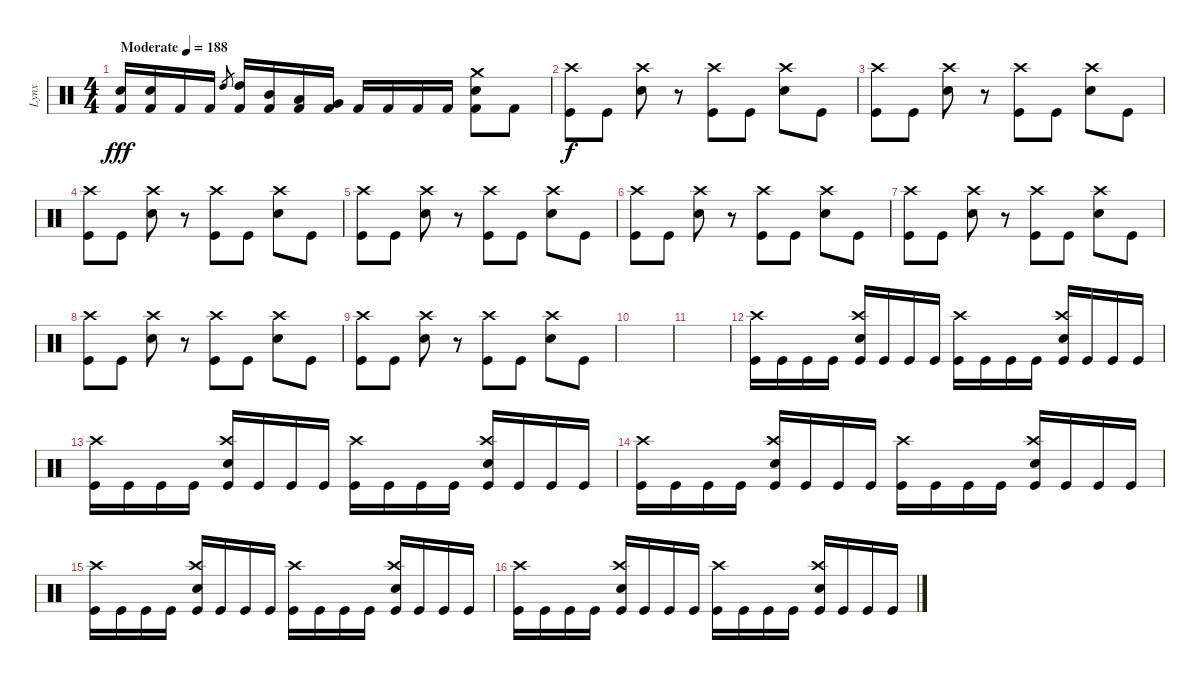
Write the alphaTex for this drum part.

\track ("Lynx" "Lynx") {instrument percussion}
\staff {score}
\articulation defaults
\ts (4 4)
\tempo (188 "Moderate")
\clef neutral
\ks c
("Electric Snare (hit)" "Kick (hit) 2").16{dy fff} ("Electric Snare (hit)" "Kick (hit) 2").16 "Kick (hit) 2".16 "Kick (hit) 2".16 "High Tom (hit)".8{gr} ("High Tom (hit)" "Kick (hit) 2").16 ("Mid Tom (hit)" "Kick (hit) 2").16 ("Low Tom (hit)" "Kick (hit) 2").16 ("Very Low Tom (hit)" "Kick (hit) 2").16 "Kick (hit) 2".16 "Kick (hit) 2".16 "Kick (hit) 2".16 "Kick (hit) 2".16 ("Crash medium (hit)" "Electric Snare (hit)" "Kick (hit) 2").8 "Kick (hit) 2".8 |
("Crash high (hit)" "Kick (hit)").8{dy f} "Kick (hit)".8 ("Crash high (hit)" "Electric Snare (hit)").8 r.8 ("Crash high (hit)" "Kick (hit)").8 "Kick (hit)".8 ("Crash high (hit)" "Electric Snare (hit)").8 "Kick (hit)".8 |
("Crash high (hit)" "Kick (hit)").8 "Kick (hit)".8 ("Crash high (hit)" "Electric Snare (hit)").8 r.8 ("Crash high (hit)" "Kick (hit)").8 "Kick (hit)".8 ("Crash high (hit)" "Electric Snare (hit)").8 "Kick (hit)".8 |
("Crash high (hit)" "Kick (hit)").8 "Kick (hit)".8 ("Crash high (hit)" "Electric Snare (hit)").8 r.8 ("Crash high (hit)" "Kick (hit)").8 "Kick (hit)".8 ("Crash high (hit)" "Electric Snare (hit)").8 "Kick (hit)".8 |
("Crash high (hit)" "Kick (hit)").8 "Kick (hit)".8 ("Crash high (hit)" "Electric Snare (hit)").8 r.8 ("Crash high (hit)" "Kick (hit)").8 "Kick (hit)".8 ("Crash high (hit)" "Electric Snare (hit)").8 "Kick (hit)".8 |
("Crash high (hit)" "Kick (hit)").8 "Kick (hit)".8 ("Crash high (hit)" "Electric Snare (hit)").8 r.8 ("Crash high (hit)" "Kick (hit)").8 "Kick (hit)".8 ("Crash high (hit)" "Electric Snare (hit)").8 "Kick (hit)".8 |
("Crash high (hit)" "Kick (hit)").8 "Kick (hit)".8 ("Crash high (hit)" "Electric Snare (hit)").8 r.8 ("Crash high (hit)" "Kick (hit)").8 "Kick (hit)".8 ("Crash high (hit)" "Electric Snare (hit)").8 "Kick (hit)".8 |
("Crash high (hit)" "Kick (hit)").8 "Kick (hit)".8 ("Crash high (hit)" "Electric Snare (hit)").8 r.8 ("Crash high (hit)" "Kick (hit)").8 "Kick (hit)".8 ("Crash high (hit)" "Electric Snare (hit)").8 "Kick (hit)".8 |
("Crash high (hit)" "Kick (hit)").8 "Kick (hit)".8 ("Crash high (hit)" "Electric Snare (hit)").8 r.8 ("Crash high (hit)" "Kick (hit)").8 "Kick (hit)".8 ("Crash high (hit)" "Electric Snare (hit)").8 "Kick (hit)".8 |
|
|
("Crash high (hit)" "Kick (hit)").16 "Kick (hit)".16 "Kick (hit)".16 "Kick (hit)".16 ("Crash high (hit)" "Kick (hit)" "Electric Snare (hit)").16 "Kick (hit)".16 "Kick (hit)".16 "Kick (hit)".16 ("Crash high (hit)" "Kick (hit)").16 "Kick (hit)".16 "Kick (hit)".16 "Kick (hit)".16 ("Crash high (hit)" "Kick (hit)" "Electric Snare (hit)").16 "Kick (hit)".16 "Kick (hit)".16 "Kick (hit)".16 |
("Crash high (hit)" "Kick (hit)").16 "Kick (hit)".16 "Kick (hit)".16 "Kick (hit)".16 ("Crash high (hit)" "Kick (hit)" "Electric Snare (hit)").16 "Kick (hit)".16 "Kick (hit)".16 "Kick (hit)".16 ("Crash high (hit)" "Kick (hit)").16 "Kick (hit)".16 "Kick (hit)".16 "Kick (hit)".16 ("Crash high (hit)" "Kick (hit)" "Electric Snare (hit)").16 "Kick (hit)".16 "Kick (hit)".16 "Kick (hit)".16 |
("Crash high (hit)" "Kick (hit)").16 "Kick (hit)".16 "Kick (hit)".16 "Kick (hit)".16 ("Crash high (hit)" "Kick (hit)" "Electric Snare (hit)").16 "Kick (hit)".16 "Kick (hit)".16 "Kick (hit)".16 ("Crash high (hit)" "Kick (hit)").16 "Kick (hit)".16 "Kick (hit)".16 "Kick (hit)".16 ("Crash high (hit)" "Kick (hit)" "Electric Snare (hit)").16 "Kick (hit)".16 "Kick (hit)".16 "Kick (hit)".16 |
("Crash high (hit)" "Kick (hit)").16 "Kick (hit)".16 "Kick (hit)".16 "Kick (hit)".16 ("Crash high (hit)" "Kick (hit)" "Electric Snare (hit)").16 "Kick (hit)".16 "Kick (hit)".16 "Kick (hit)".16 ("Crash high (hit)" "Kick (hit)").16 "Kick (hit)".16 "Kick (hit)".16 "Kick (hit)".16 ("Crash high (hit)" "Kick (hit)" "Electric Snare (hit)").16 "Kick (hit)".16 "Kick (hit)".16 "Kick (hit)".16 |
("Crash high (hit)" "Kick (hit)").16 "Kick (hit)".16 "Kick (hit)".16 "Kick (hit)".16 ("Crash high (hit)" "Kick (hit)" "Electric Snare (hit)").16 "Kick (hit)".16 "Kick (hit)".16 "Kick (hit)".16 ("Crash high (hit)" "Kick (hit)").16 "Kick (hit)".16 "Kick (hit)".16 "Kick (hit)".16 ("Crash high (hit)" "Kick (hit)" "Electric Snare (hit)").16 "Kick (hit)".16 "Kick (hit)".16 "Kick (hit)".16
